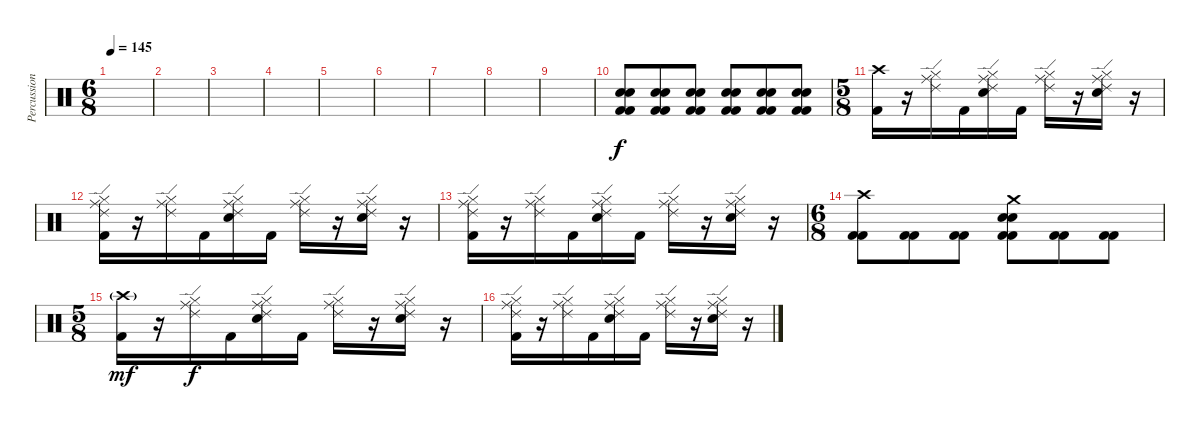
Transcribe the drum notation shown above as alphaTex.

\track ("Percussion" "Percussion") {instrument percussion}
\staff {score}
\articulation defaults
\ts (6 8)
\tempo 145
\clef neutral
\ks c
|
|
|
|
|
|
|
|
|
("Electric Snare (hit)" "Electric Snare (hit)" "Kick (hit) 2" "Kick (hit) 2").8 ("Electric Snare (hit)" "Electric Snare (hit)" "Kick (hit) 2" "Kick (hit) 2").8 ("Electric Snare (hit)" "Electric Snare (hit)" "Kick (hit) 2" "Kick (hit) 2").8 ("Electric Snare (hit)" "Electric Snare (hit)" "Kick (hit) 2" "Kick (hit) 2").8 ("Electric Snare (hit)" "Electric Snare (hit)" "Kick (hit) 2" "Kick (hit) 2").8 ("Electric Snare (hit)" "Electric Snare (hit)" "Kick (hit) 2" "Kick (hit) 2").8 |
\ts (5 8)
("Crash high (hit)" "Kick (hit) 2").16 r.16 ("Ride (middle)" "Ride (edge) 2" "Hi-Hat (closed)").16 "Kick (hit) 2".16 ("Ride (middle)" "Electric Snare (hit)" "Ride (edge) 2" "Hi-Hat (closed)").16 "Kick (hit) 2".16 ("Ride (middle)" "Ride (edge) 2" "Hi-Hat (closed)").16 r.16 ("Ride (middle)" "Electric Snare (hit)" "Ride (edge) 2" "Hi-Hat (closed)").16 r.16 |
("Ride (middle)" "Kick (hit) 2" "Ride (edge) 2" "Hi-Hat (closed)").16 r.16 ("Ride (middle)" "Ride (edge) 2" "Hi-Hat (closed)").16 "Kick (hit) 2".16 ("Ride (middle)" "Electric Snare (hit)" "Ride (edge) 2" "Hi-Hat (closed)").16 "Kick (hit) 2".16 ("Ride (middle)" "Ride (edge) 2" "Hi-Hat (closed)").16 r.16 ("Ride (middle)" "Electric Snare (hit)" "Ride (edge) 2" "Hi-Hat (closed)").16 r.16 |
("Ride (middle)" "Kick (hit) 2" "Ride (edge) 2" "Hi-Hat (closed)").16 r.16 ("Ride (middle)" "Ride (edge) 2" "Hi-Hat (closed)").16 "Kick (hit) 2".16 ("Ride (middle)" "Electric Snare (hit)" "Ride (edge) 2" "Hi-Hat (closed)").16 "Kick (hit) 2".16 ("Ride (middle)" "Ride (edge) 2" "Hi-Hat (closed)").16 r.16 ("Ride (middle)" "Electric Snare (hit)" "Ride (edge) 2" "Hi-Hat (closed)").16 r.16 |
\ts (6 8)
("Crash high (hit)" "Kick (hit) 2" "Kick (hit) 2").8 ("Kick (hit) 2" "Kick (hit) 2").8 ("Kick (hit) 2" "Kick (hit) 2").8 ("Crash medium (hit)" "Electric Snare (hit)" "Electric Snare (hit)" "Kick (hit) 2" "Kick (hit) 2").8 ("Kick (hit) 2" "Kick (hit) 2").8 ("Kick (hit) 2" "Kick (hit) 2").8 |
\ts (5 8)
("Crash high (hit)"{g} "Kick (hit) 2").16{dy mf} r.16 ("Ride (middle)" "Ride (edge) 2" "Hi-Hat (closed)").16{dy f} "Kick (hit) 2".16 ("Ride (middle)" "Electric Snare (hit)" "Ride (edge) 2" "Hi-Hat (closed)").16 "Kick (hit) 2".16 ("Ride (middle)" "Ride (edge) 2" "Hi-Hat (closed)").16 r.16 ("Ride (middle)" "Electric Snare (hit)" "Ride (edge) 2" "Hi-Hat (closed)").16 r.16 |
("Ride (middle)" "Kick (hit) 2" "Ride (edge) 2" "Hi-Hat (closed)").16 r.16 ("Ride (middle)" "Ride (edge) 2" "Hi-Hat (closed)").16 "Kick (hit) 2".16 ("Ride (middle)" "Electric Snare (hit)" "Ride (edge) 2" "Hi-Hat (closed)").16 "Kick (hit) 2".16 ("Ride (middle)" "Ride (edge) 2" "Hi-Hat (closed)").16 r.16 ("Ride (middle)" "Electric Snare (hit)" "Ride (edge) 2" "Hi-Hat (closed)").16 r.16
